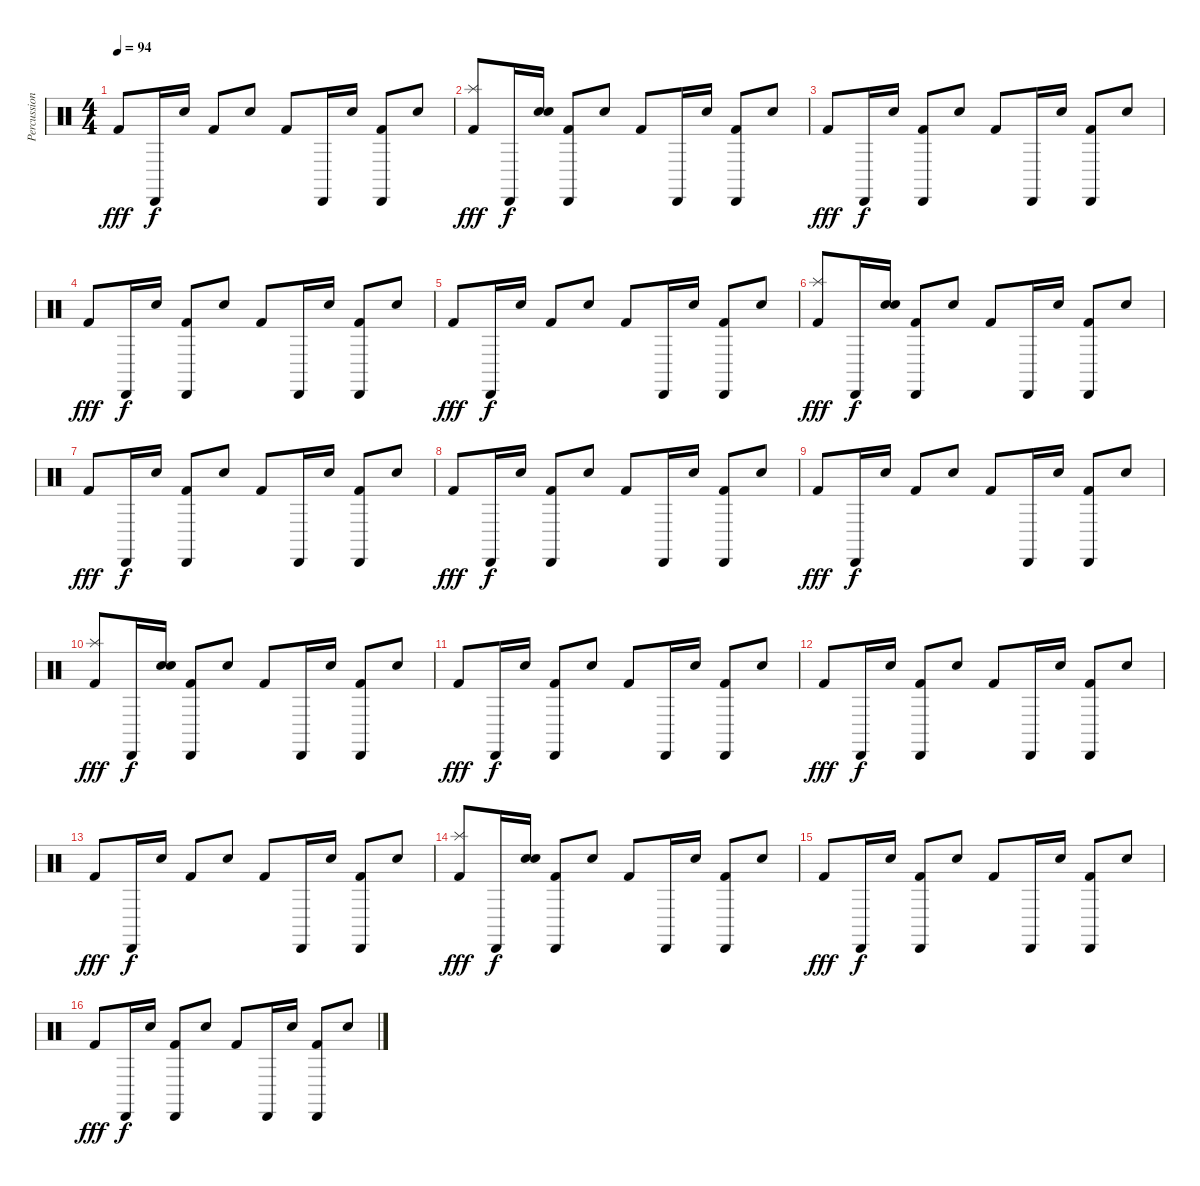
\track ("Percussions" "Percussion") {instrument percussion}
\staff {score}
\articulation defaults
\ts (4 4)
\tempo 94
\clef neutral
\ks c "Kick (hit) 2".8{dy fff} "Cabasa (hit)".16{dy f} "Electric Snare (hit)".16 "Kick (hit) 2".8 "Electric Snare (hit)".8 "Kick (hit) 2".8 "Cabasa (hit)".16 "Electric Snare (hit)".16
("Cabasa (hit)" "Kick (hit) 2").8 "Electric Snare (hit)".8 |
("Splash (hit)" "Kick (hit) 2").8{dy fff} "Cabasa (hit)".16{dy f} ("Snare (hit) 2" "Electric Snare (hit)").16 ("Cabasa (hit)" "Kick (hit) 2").8 "Electric Snare (hit)".8 "Kick (hit) 2".8 "Cabasa (hit)".16 "Electric Snare (hit)".16 ("Cabasa (hit)" "Kick (hit) 2").8 "Electric Snare (hit)".8 |
"Kick (hit) 2".8{dy fff} "Cabasa (hit)".16{dy f} "Electric Snare (hit)".16 ("Cabasa (hit)" "Kick (hit) 2").8 "Electric Snare (hit)".8 "Kick (hit) 2".8 "Cabasa (hit)".16 "Electric Snare (hit)".16 ("Cabasa (hit)" "Kick (hit) 2").8 "Electric Snare (hit)".8 |
"Kick (hit) 2".8{dy fff} "Cabasa (hit)".16{dy f} "Electric Snare (hit)".16 ("Cabasa (hit)" "Kick (hit) 2").8 "Electric Snare (hit)".8 "Kick (hit) 2".8 "Cabasa (hit)".16 "Electric Snare (hit)".16 ("Cabasa (hit)" "Kick (hit) 2").8 "Electric Snare (hit)".8 |
"Kick (hit) 2".8{dy fff} "Cabasa (hit)".16{dy f} "Electric Snare (hit)".16 "Kick (hit) 2".8 "Electric Snare (hit)".8 "Kick (hit) 2".8 "Cabasa (hit)".16 "Electric Snare (hit)".16 ("Cabasa (hit)" "Kick (hit) 2").8 "Electric Snare (hit)".8 |
("Splash (hit)" "Kick (hit) 2").8{dy fff} "Cabasa (hit)".16{dy f} ("Snare (hit) 2" "Electric Snare (hit)").16 ("Cabasa (hit)" "Kick (hit) 2").8 "Electric Snare (hit)".8 "Kick (hit) 2".8 "Cabasa (hit)".16 "Electric Snare (hit)".16 ("Cabasa (hit)" "Kick (hit) 2").8 "Electric Snare (hit)".8 |
"Kick (hit) 2".8{dy fff} "Cabasa (hit)".16{dy f} "Electric Snare (hit)".16 ("Cabasa (hit)" "Kick (hit) 2").8 "Electric Snare (hit)".8 "Kick (hit) 2".8 "Cabasa (hit)".16 "Electric Snare (hit)".16 ("Cabasa (hit)" "Kick (hit) 2").8 "Electric Snare (hit)".8 |
"Kick (hit) 2".8{dy fff} "Cabasa (hit)".16{dy f} "Electric Snare (hit)".16 ("Cabasa (hit)" "Kick (hit) 2").8 "Electric Snare (hit)".8 "Kick (hit) 2".8 "Cabasa (hit)".16 "Electric Snare (hit)".16 ("Cabasa (hit)" "Kick (hit) 2").8 "Electric Snare (hit)".8 |
"Kick (hit) 2".8{dy fff} "Cabasa (hit)".16{dy f} "Electric Snare (hit)".16 "Kick (hit) 2".8 "Electric Snare (hit)".8 "Kick (hit) 2".8 "Cabasa (hit)".16 "Electric Snare (hit)".16 ("Cabasa (hit)" "Kick (hit) 2").8 "Electric Snare (hit)".8 |
("Splash (hit)" "Kick (hit) 2").8{dy fff} "Cabasa (hit)".16{dy f} ("Snare (hit) 2" "Electric Snare (hit)").16 ("Cabasa (hit)" "Kick (hit) 2").8 "Electric Snare (hit)".8 "Kick (hit) 2".8 "Cabasa (hit)".16 "Electric Snare (hit)".16 ("Cabasa (hit)" "Kick (hit) 2").8 "Electric Snare (hit)".8 |
"Kick (hit) 2".8{dy fff} "Cabasa (hit)".16{dy f} "Electric Snare (hit)".16 ("Cabasa (hit)" "Kick (hit) 2").8 "Electric Snare (hit)".8 "Kick (hit) 2".8 "Cabasa (hit)".16 "Electric Snare (hit)".16 ("Cabasa (hit)" "Kick (hit) 2").8 "Electric Snare (hit)".8 |
"Kick (hit) 2".8{dy fff} "Cabasa (hit)".16{dy f} "Electric Snare (hit)".16 ("Cabasa (hit)" "Kick (hit) 2").8 "Electric Snare (hit)".8 "Kick (hit) 2".8 "Cabasa (hit)".16 "Electric Snare (hit)".16 ("Cabasa (hit)" "Kick (hit) 2").8 "Electric Snare (hit)".8 |
"Kick (hit) 2".8{dy fff} "Cabasa (hit)".16{dy f} "Electric Snare (hit)".16 "Kick (hit) 2".8 "Electric Snare (hit)".8 "Kick (hit) 2".8 "Cabasa (hit)".16 "Electric Snare (hit)".16 ("Cabasa (hit)" "Kick (hit) 2").8 "Electric Snare (hit)".8 |
("Splash (hit)" "Kick (hit) 2").8{dy fff} "Cabasa (hit)".16{dy f} ("Snare (hit) 2" "Electric Snare (hit)").16 ("Cabasa (hit)" "Kick (hit) 2").8 "Electric Snare (hit)".8 "Kick (hit) 2".8 "Cabasa (hit)".16 "Electric Snare (hit)".16 ("Cabasa (hit)" "Kick (hit) 2").8 "Electric Snare (hit)".8 |
"Kick (hit) 2".8{dy fff} "Cabasa (hit)".16{dy f} "Electric Snare (hit)".16 ("Cabasa (hit)" "Kick (hit) 2").8 "Electric Snare (hit)".8 "Kick (hit) 2".8 "Cabasa (hit)".16 "Electric Snare (hit)".16 ("Cabasa (hit)" "Kick (hit) 2").8 "Electric Snare (hit)".8 |
"Kick (hit) 2".8{dy fff} "Cabasa (hit)".16{dy f} "Electric Snare (hit)".16 ("Cabasa (hit)" "Kick (hit) 2").8 "Electric Snare (hit)".8 "Kick (hit) 2".8 "Cabasa (hit)".16 "Electric Snare (hit)".16 ("Cabasa (hit)" "Kick (hit) 2").8 "Electric Snare (hit)".8
